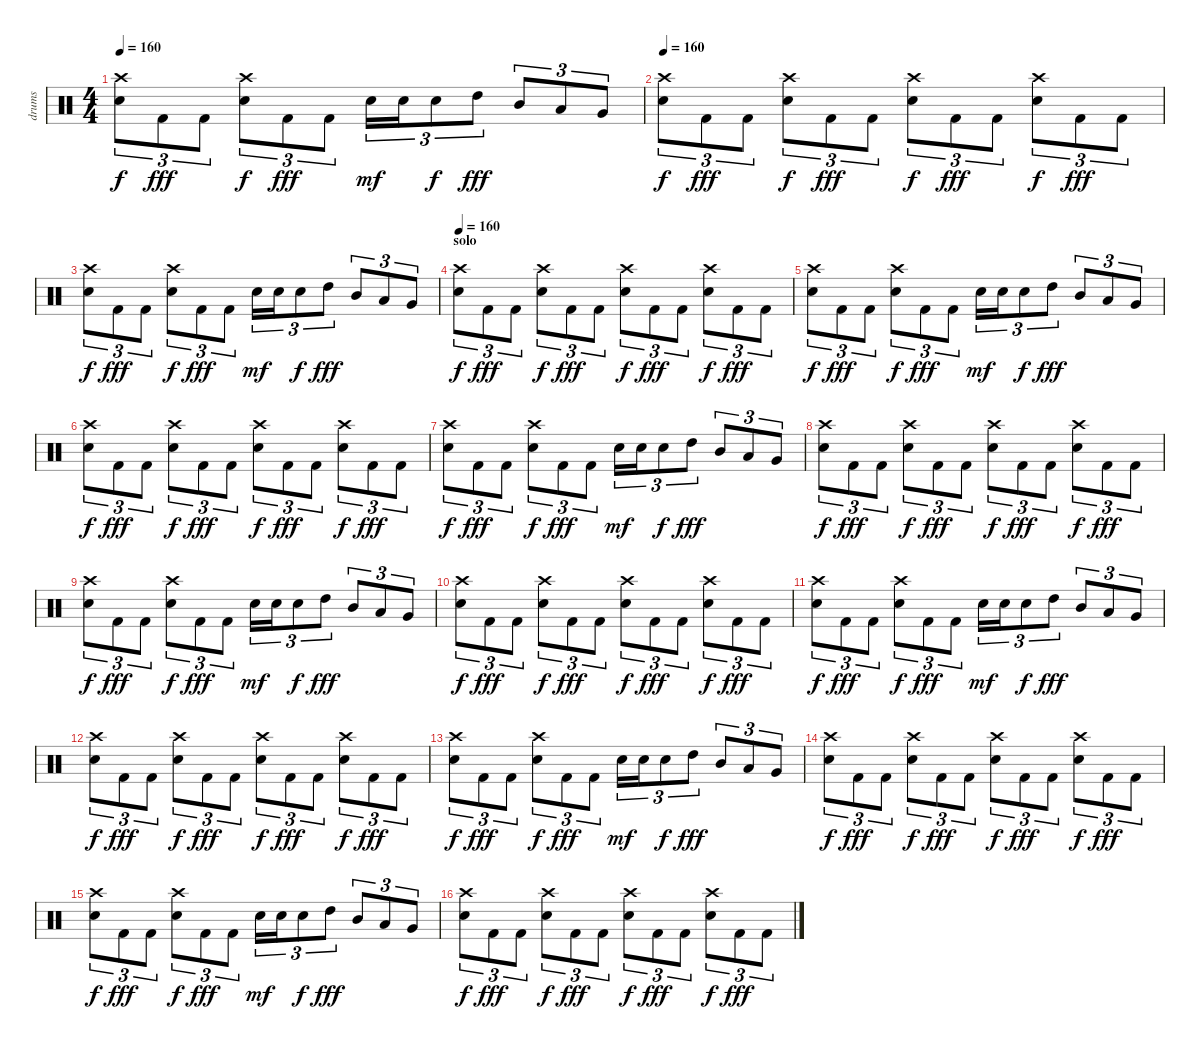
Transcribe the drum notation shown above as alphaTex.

\track ("drums" "drums") {instrument percussion}
\staff {score}
\articulation defaults
\ts (4 4)
\tempo 160
\clef neutral
\ks c
("Crash high (hit)" "Snare (hit) 2").8{tu (3 2) dy f} "Kick (hit) 2".8{tu (3 2) dy fff} "Kick (hit) 2".8{tu (3 2)} ("Crash high (hit)" "Snare (hit) 2").8{tu (3 2) dy f} "Kick (hit) 2".8{tu (3 2) dy fff} "Kick (hit) 2".8{tu (3 2)} "Snare (hit) 2".16{tu (3 2) dy mf} "Snare (hit) 2".16{tu (3 2)} "Snare (hit) 2".8{tu (3 2) dy f} "High Tom (hit)".8{tu (3 2) dy fff} "Mid Tom (hit)".8{tu (3 2)} "Low Tom (hit)".8{tu (3 2)} "Very Low Tom (hit)".8{tu (3 2)} |
\tempo 160
("Crash high (hit)" "Snare (hit) 2").8{tu (3 2) dy f} "Kick (hit) 2".8{tu (3 2) dy fff} "Kick (hit) 2".8{tu (3 2)} ("Crash high (hit)" "Snare (hit) 2").8{tu (3 2) dy f} "Kick (hit) 2".8{tu (3 2) dy fff} "Kick (hit) 2".8{tu (3 2)} ("Crash high (hit)" "Snare (hit) 2").8{tu (3 2) dy f} "Kick (hit) 2".8{tu (3 2) dy fff} "Kick (hit) 2".8{tu (3 2)} ("Crash high (hit)" "Snare (hit) 2").8{tu (3 2) dy f} "Kick (hit) 2".8{tu (3 2) dy fff} "Kick (hit) 2".8{tu (3 2)} |
("Crash high (hit)" "Snare (hit) 2").8{tu (3 2) dy f} "Kick (hit) 2".8{tu (3 2) dy fff} "Kick (hit) 2".8{tu (3 2)} ("Crash high (hit)" "Snare (hit) 2").8{tu (3 2) dy f} "Kick (hit) 2".8{tu (3 2) dy fff} "Kick (hit) 2".8{tu (3 2)} "Snare (hit) 2".16{tu (3 2) dy mf} "Snare (hit) 2".16{tu (3 2)} "Snare (hit) 2".8{tu (3 2) dy f} "High Tom (hit)".8{tu (3 2) dy fff} "Mid Tom (hit)".8{tu (3 2)} "Low Tom (hit)".8{tu (3 2)} "Very Low Tom (hit)".8{tu (3 2)} |
\section ("" "solo")
\tempo 160
("Crash high (hit)" "Snare (hit) 2").8{tu (3 2) dy f} "Kick (hit) 2".8{tu (3 2) dy fff} "Kick (hit) 2".8{tu (3 2)} ("Crash high (hit)" "Snare (hit) 2").8{tu (3 2) dy f} "Kick (hit) 2".8{tu (3 2) dy fff} "Kick (hit) 2".8{tu (3 2)} ("Crash high (hit)" "Snare (hit) 2").8{tu (3 2) dy f} "Kick (hit) 2".8{tu (3 2) dy fff} "Kick (hit) 2".8{tu (3 2)} ("Crash high (hit)" "Snare (hit) 2").8{tu (3 2) dy f} "Kick (hit) 2".8{tu (3 2) dy fff} "Kick (hit) 2".8{tu (3 2)} |
("Crash high (hit)" "Snare (hit) 2").8{tu (3 2) dy f} "Kick (hit) 2".8{tu (3 2) dy fff} "Kick (hit) 2".8{tu (3 2)} ("Crash high (hit)" "Snare (hit) 2").8{tu (3 2) dy f} "Kick (hit) 2".8{tu (3 2) dy fff} "Kick (hit) 2".8{tu (3 2)} "Snare (hit) 2".16{tu (3 2) dy mf} "Snare (hit) 2".16{tu (3 2)} "Snare (hit) 2".8{tu (3 2) dy f} "High Tom (hit)".8{tu (3 2) dy fff} "Mid Tom (hit)".8{tu (3 2)} "Low Tom (hit)".8{tu (3 2)} "Very Low Tom (hit)".8{tu (3 2)} |
("Crash high (hit)" "Snare (hit) 2").8{tu (3 2) dy f} "Kick (hit) 2".8{tu (3 2) dy fff} "Kick (hit) 2".8{tu (3 2)} ("Crash high (hit)" "Snare (hit) 2").8{tu (3 2) dy f} "Kick (hit) 2".8{tu (3 2) dy fff} "Kick (hit) 2".8{tu (3 2)} ("Crash high (hit)" "Snare (hit) 2").8{tu (3 2) dy f} "Kick (hit) 2".8{tu (3 2) dy fff} "Kick (hit) 2".8{tu (3 2)} ("Crash high (hit)" "Snare (hit) 2").8{tu (3 2) dy f} "Kick (hit) 2".8{tu (3 2) dy fff} "Kick (hit) 2".8{tu (3 2)} |
("Crash high (hit)" "Snare (hit) 2").8{tu (3 2) dy f} "Kick (hit) 2".8{tu (3 2) dy fff} "Kick (hit) 2".8{tu (3 2)} ("Crash high (hit)" "Snare (hit) 2").8{tu (3 2) dy f} "Kick (hit) 2".8{tu (3 2) dy fff} "Kick (hit) 2".8{tu (3 2)} "Snare (hit) 2".16{tu (3 2) dy mf} "Snare (hit) 2".16{tu (3 2)} "Snare (hit) 2".8{tu (3 2) dy f} "High Tom (hit)".8{tu (3 2) dy fff} "Mid Tom (hit)".8{tu (3 2)} "Low Tom (hit)".8{tu (3 2)} "Very Low Tom (hit)".8{tu (3 2)} |
("Crash high (hit)" "Snare (hit) 2").8{tu (3 2) dy f} "Kick (hit) 2".8{tu (3 2) dy fff} "Kick (hit) 2".8{tu (3 2)} ("Crash high (hit)" "Snare (hit) 2").8{tu (3 2) dy f} "Kick (hit) 2".8{tu (3 2) dy fff} "Kick (hit) 2".8{tu (3 2)} ("Crash high (hit)" "Snare (hit) 2").8{tu (3 2) dy f} "Kick (hit) 2".8{tu (3 2) dy fff} "Kick (hit) 2".8{tu (3 2)} ("Crash high (hit)" "Snare (hit) 2").8{tu (3 2) dy f} "Kick (hit) 2".8{tu (3 2) dy fff} "Kick (hit) 2".8{tu (3 2)} |
("Crash high (hit)" "Snare (hit) 2").8{tu (3 2) dy f} "Kick (hit) 2".8{tu (3 2) dy fff} "Kick (hit) 2".8{tu (3 2)} ("Crash high (hit)" "Snare (hit) 2").8{tu (3 2) dy f} "Kick (hit) 2".8{tu (3 2) dy fff} "Kick (hit) 2".8{tu (3 2)} "Snare (hit) 2".16{tu (3 2) dy mf} "Snare (hit) 2".16{tu (3 2)} "Snare (hit) 2".8{tu (3 2) dy f} "High Tom (hit)".8{tu (3 2) dy fff} "Mid Tom (hit)".8{tu (3 2)} "Low Tom (hit)".8{tu (3 2)} "Very Low Tom (hit)".8{tu (3 2)} |
("Crash high (hit)" "Snare (hit) 2").8{tu (3 2) dy f} "Kick (hit) 2".8{tu (3 2) dy fff} "Kick (hit) 2".8{tu (3 2)} ("Crash high (hit)" "Snare (hit) 2").8{tu (3 2) dy f} "Kick (hit) 2".8{tu (3 2) dy fff} "Kick (hit) 2".8{tu (3 2)} ("Crash high (hit)" "Snare (hit) 2").8{tu (3 2) dy f} "Kick (hit) 2".8{tu (3 2) dy fff} "Kick (hit) 2".8{tu (3 2)} ("Crash high (hit)" "Snare (hit) 2").8{tu (3 2) dy f} "Kick (hit) 2".8{tu (3 2) dy fff} "Kick (hit) 2".8{tu (3 2)} |
("Crash high (hit)" "Snare (hit) 2").8{tu (3 2) dy f} "Kick (hit) 2".8{tu (3 2) dy fff} "Kick (hit) 2".8{tu (3 2)} ("Crash high (hit)" "Snare (hit) 2").8{tu (3 2) dy f} "Kick (hit) 2".8{tu (3 2) dy fff} "Kick (hit) 2".8{tu (3 2)} "Snare (hit) 2".16{tu (3 2) dy mf} "Snare (hit) 2".16{tu (3 2)} "Snare (hit) 2".8{tu (3 2) dy f} "High Tom (hit)".8{tu (3 2) dy fff} "Mid Tom (hit)".8{tu (3 2)} "Low Tom (hit)".8{tu (3 2)} "Very Low Tom (hit)".8{tu (3 2)} |
("Crash high (hit)" "Snare (hit) 2").8{tu (3 2) dy f} "Kick (hit) 2".8{tu (3 2) dy fff} "Kick (hit) 2".8{tu (3 2)} ("Crash high (hit)" "Snare (hit) 2").8{tu (3 2) dy f} "Kick (hit) 2".8{tu (3 2) dy fff} "Kick (hit) 2".8{tu (3 2)} ("Crash high (hit)" "Snare (hit) 2").8{tu (3 2) dy f} "Kick (hit) 2".8{tu (3 2) dy fff} "Kick (hit) 2".8{tu (3 2)} ("Crash high (hit)" "Snare (hit) 2").8{tu (3 2) dy f} "Kick (hit) 2".8{tu (3 2) dy fff} "Kick (hit) 2".8{tu (3 2)} |
("Crash high (hit)" "Snare (hit) 2").8{tu (3 2) dy f} "Kick (hit) 2".8{tu (3 2) dy fff} "Kick (hit) 2".8{tu (3 2)} ("Crash high (hit)" "Snare (hit) 2").8{tu (3 2) dy f} "Kick (hit) 2".8{tu (3 2) dy fff} "Kick (hit) 2".8{tu (3 2)} "Snare (hit) 2".16{tu (3 2) dy mf} "Snare (hit) 2".16{tu (3 2)} "Snare (hit) 2".8{tu (3 2) dy f} "High Tom (hit)".8{tu (3 2) dy fff} "Mid Tom (hit)".8{tu (3 2)} "Low Tom (hit)".8{tu (3 2)} "Very Low Tom (hit)".8{tu (3 2)} |
("Crash high (hit)" "Snare (hit) 2").8{tu (3 2) dy f} "Kick (hit) 2".8{tu (3 2) dy fff} "Kick (hit) 2".8{tu (3 2)} ("Crash high (hit)" "Snare (hit) 2").8{tu (3 2) dy f} "Kick (hit) 2".8{tu (3 2) dy fff} "Kick (hit) 2".8{tu (3 2)} ("Crash high (hit)" "Snare (hit) 2").8{tu (3 2) dy f} "Kick (hit) 2".8{tu (3 2) dy fff} "Kick (hit) 2".8{tu (3 2)} ("Crash high (hit)" "Snare (hit) 2").8{tu (3 2) dy f} "Kick (hit) 2".8{tu (3 2) dy fff} "Kick (hit) 2".8{tu (3 2)} |
("Crash high (hit)" "Snare (hit) 2").8{tu (3 2) dy f} "Kick (hit) 2".8{tu (3 2) dy fff} "Kick (hit) 2".8{tu (3 2)} ("Crash high (hit)" "Snare (hit) 2").8{tu (3 2) dy f} "Kick (hit) 2".8{tu (3 2) dy fff} "Kick (hit) 2".8{tu (3 2)} "Snare (hit) 2".16{tu (3 2) dy mf} "Snare (hit) 2".16{tu (3 2)} "Snare (hit) 2".8{tu (3 2) dy f} "High Tom (hit)".8{tu (3 2) dy fff} "Mid Tom (hit)".8{tu (3 2)} "Low Tom (hit)".8{tu (3 2)} "Very Low Tom (hit)".8{tu (3 2)} |
("Crash high (hit)" "Snare (hit) 2").8{tu (3 2) dy f} "Kick (hit) 2".8{tu (3 2) dy fff} "Kick (hit) 2".8{tu (3 2)} ("Crash high (hit)" "Snare (hit) 2").8{tu (3 2) dy f} "Kick (hit) 2".8{tu (3 2) dy fff} "Kick (hit) 2".8{tu (3 2)} ("Crash high (hit)" "Snare (hit) 2").8{tu (3 2) dy f} "Kick (hit) 2".8{tu (3 2) dy fff} "Kick (hit) 2".8{tu (3 2)} ("Crash high (hit)" "Snare (hit) 2").8{tu (3 2) dy f} "Kick (hit) 2".8{tu (3 2) dy fff} "Kick (hit) 2".8{tu (3 2)}
